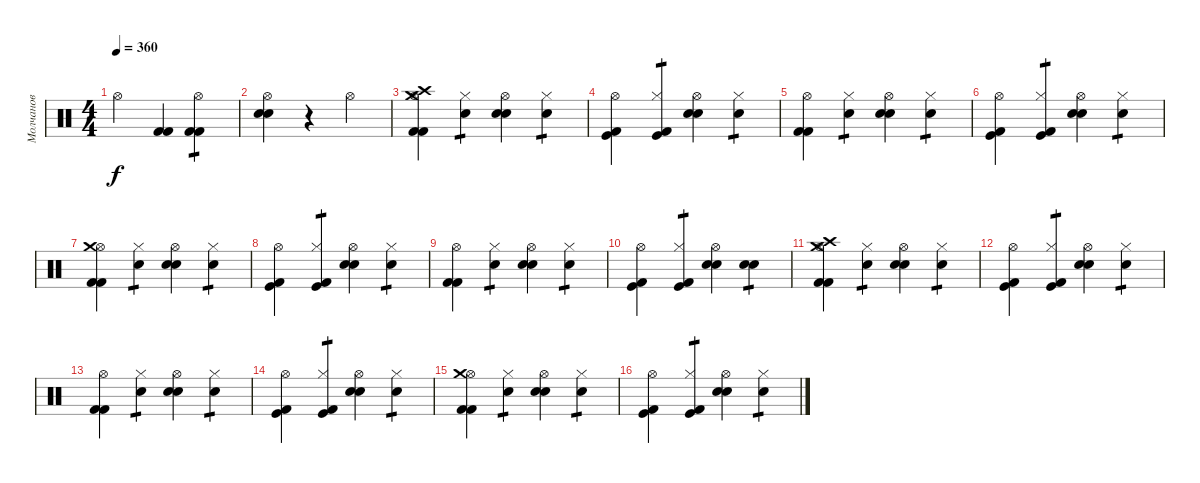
\track ("Молчанов" "Молчанов") {instrument percussion}
\staff {score}
\articulation defaults
\ts (4 4)
\tempo 360
\clef neutral
\ks c "Hi-Hat (open)".4{dy f}
("Kick (hit) 2" "Kick (hit) 2").4 ("Kick (hit) 2" "Kick (hit) 2" "Hi-Hat (open)").4{tp 1} |
("Electric Snare (hit)" "Electric Snare (hit)" "Hi-Hat (open)").4 r.4 "Hi-Hat (open)".4 |
("Kick (hit) 2" "Kick (hit) 2" "Hi-Hat (open)" "Crash high (hit)" "Crash medium (hit)").4 ("Snare (hit)"{x} "Hi-Hat (closed)").4{tp 1} ("Electric Snare (hit)" "Electric Snare (hit)" "Hi-Hat (open)").4 ("Snare (hit)"{x} "Hi-Hat (closed)").4{tp 1} |
("Kick (hit) 2" "Kick (hit)" "Hi-Hat (open)").4 ("Kick (hit) 2" "Kick (hit)" "Hi-Hat (closed)").4{tp 1} ("Electric Snare (hit)" "Electric Snare (hit)" "Hi-Hat (open)").4 ("Snare (hit)"{x} "Hi-Hat (closed)").4{tp 1} |
("Kick (hit) 2" "Kick (hit) 2" "Hi-Hat (open)").4 ("Snare (hit)"{x} "Hi-Hat (closed)").4{tp 1} ("Electric Snare (hit)" "Electric Snare (hit)" "Hi-Hat (open)").4 ("Snare (hit)"{x} "Hi-Hat (closed)").4{tp 1} |
("Kick (hit) 2" "Kick (hit)" "Hi-Hat (open)").4 ("Kick (hit) 2" "Kick (hit)" "Hi-Hat (closed)").4{tp 1} ("Electric Snare (hit)" "Electric Snare (hit)" "Hi-Hat (open)").4 ("Snare (hit)"{x} "Hi-Hat (closed)").4{tp 1} |
("Kick (hit) 2" "Kick (hit) 2" "Hi-Hat (open)" "Crash medium (hit)").4 ("Snare (hit)"{x} "Hi-Hat (closed)").4{tp 1} ("Electric Snare (hit)" "Electric Snare (hit)" "Hi-Hat (open)").4 ("Snare (hit)"{x} "Hi-Hat (closed)").4{tp 1} |
("Kick (hit) 2" "Kick (hit)" "Hi-Hat (open)").4 ("Kick (hit) 2" "Kick (hit)" "Hi-Hat (closed)").4{tp 1} ("Electric Snare (hit)" "Electric Snare (hit)" "Hi-Hat (open)").4 ("Snare (hit)"{x} "Hi-Hat (closed)").4{tp 1} |
("Kick (hit) 2" "Kick (hit) 2" "Hi-Hat (open)").4 ("Snare (hit)"{x} "Hi-Hat (closed)").4{tp 1} ("Electric Snare (hit)" "Electric Snare (hit)" "Hi-Hat (open)").4 ("Snare (hit)"{x} "Hi-Hat (closed)").4{tp 1} |
("Kick (hit) 2" "Kick (hit)" "Hi-Hat (open)").4 ("Kick (hit) 2" "Kick (hit)" "Hi-Hat (closed)").4{tp 1} ("Electric Snare (hit)" "Electric Snare (hit)" "Hi-Hat (open)").4 ("Electric Snare (hit)" "Electric Snare (hit)").4{tp 1} |
("Kick (hit) 2" "Kick (hit) 2" "Hi-Hat (open)" "Crash high (hit)" "Crash medium (hit)").4 ("Snare (hit)"{x} "Hi-Hat (closed)").4{tp 1} ("Electric Snare (hit)" "Electric Snare (hit)" "Hi-Hat (open)").4 ("Snare (hit)"{x} "Hi-Hat (closed)").4{tp 1} |
("Kick (hit) 2" "Kick (hit)" "Hi-Hat (open)").4 ("Kick (hit) 2" "Kick (hit)" "Hi-Hat (closed)").4{tp 1} ("Electric Snare (hit)" "Electric Snare (hit)" "Hi-Hat (open)").4 ("Snare (hit)"{x} "Hi-Hat (closed)").4{tp 1} |
("Kick (hit) 2" "Kick (hit) 2" "Hi-Hat (open)").4 ("Snare (hit)"{x} "Hi-Hat (closed)").4{tp 1} ("Electric Snare (hit)" "Electric Snare (hit)" "Hi-Hat (open)").4 ("Snare (hit)"{x} "Hi-Hat (closed)").4{tp 1} |
("Kick (hit) 2" "Kick (hit)" "Hi-Hat (open)").4 ("Kick (hit) 2" "Kick (hit)" "Hi-Hat (closed)").4{tp 1} ("Electric Snare (hit)" "Electric Snare (hit)" "Hi-Hat (open)").4 ("Snare (hit)"{x} "Hi-Hat (closed)").4{tp 1} |
("Kick (hit) 2" "Kick (hit) 2" "Hi-Hat (open)" "Crash medium (hit)").4 ("Snare (hit)"{x} "Hi-Hat (closed)").4{tp 1} ("Electric Snare (hit)" "Electric Snare (hit)" "Hi-Hat (open)").4 ("Snare (hit)"{x} "Hi-Hat (closed)").4{tp 1} |
("Kick (hit) 2" "Kick (hit)" "Hi-Hat (open)").4 ("Kick (hit) 2" "Kick (hit)" "Hi-Hat (closed)").4{tp 1} ("Electric Snare (hit)" "Electric Snare (hit)" "Hi-Hat (open)").4 ("Snare (hit)"{x} "Hi-Hat (closed)").4{tp 1}
